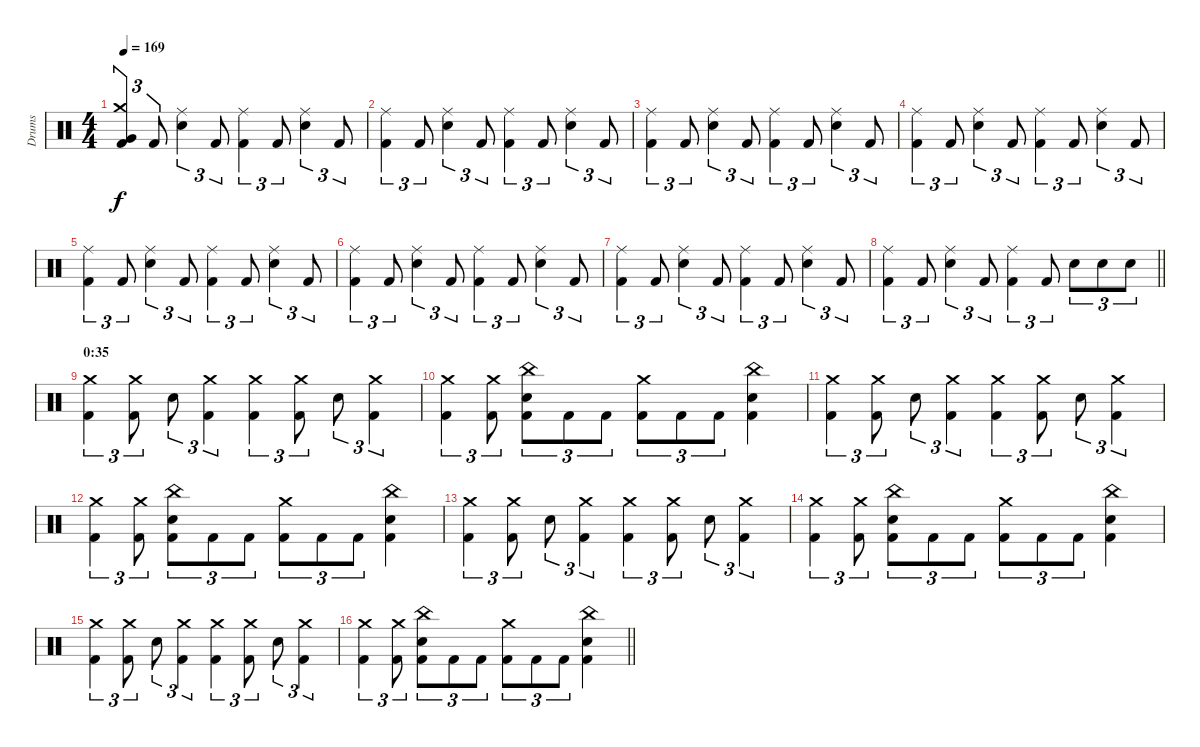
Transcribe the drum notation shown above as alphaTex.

\track ("Drums" "Drums") {instrument percussion}
\staff {score}
\articulation defaults
\ts (4 4)
\tempo 169
\clef neutral
\ks c
("Very Low Tom (hit)" "Crash medium (hit)" "Kick (hit) 2").4{tu (3 2) dy f} "Kick (hit) 2".8{tu (3 2)} ("Ride (middle)" "Snare (hit) 2").4{tu (3 2)} "Kick (hit) 2".8{tu (3 2)} ("Ride (middle)" "Kick (hit) 2").4{tu (3 2)} "Kick (hit) 2".8{tu (3 2)} ("Ride (middle)" "Snare (hit) 2").4{tu (3 2)} "Kick (hit) 2".8{tu (3 2)} |
("Ride (middle)" "Kick (hit) 2").4{tu (3 2)} "Kick (hit) 2".8{tu (3 2)} ("Ride (middle)" "Snare (hit) 2").4{tu (3 2)} "Kick (hit) 2".8{tu (3 2)} ("Ride (middle)" "Kick (hit) 2").4{tu (3 2)} "Kick (hit) 2".8{tu (3 2)} ("Ride (middle)" "Snare (hit) 2").4{tu (3 2)} "Kick (hit) 2".8{tu (3 2)} |
("Ride (middle)" "Kick (hit) 2").4{tu (3 2)} "Kick (hit) 2".8{tu (3 2)} ("Ride (middle)" "Snare (hit) 2").4{tu (3 2)} "Kick (hit) 2".8{tu (3 2)} ("Ride (middle)" "Kick (hit) 2").4{tu (3 2)} "Kick (hit) 2".8{tu (3 2)} ("Ride (middle)" "Snare (hit) 2").4{tu (3 2)} "Kick (hit) 2".8{tu (3 2)} |
("Ride (middle)" "Kick (hit) 2").4{tu (3 2)} "Kick (hit) 2".8{tu (3 2)} ("Ride (middle)" "Snare (hit) 2").4{tu (3 2)} "Kick (hit) 2".8{tu (3 2)} ("Ride (middle)" "Kick (hit) 2").4{tu (3 2)} "Kick (hit) 2".8{tu (3 2)} ("Ride (middle)" "Snare (hit) 2").4{tu (3 2)} "Kick (hit) 2".8{tu (3 2)} |
("Ride (middle)" "Kick (hit) 2").4{tu (3 2)} "Kick (hit) 2".8{tu (3 2)} ("Ride (middle)" "Snare (hit) 2").4{tu (3 2)} "Kick (hit) 2".8{tu (3 2)} ("Ride (middle)" "Kick (hit) 2").4{tu (3 2)} "Kick (hit) 2".8{tu (3 2)} ("Ride (middle)" "Snare (hit) 2").4{tu (3 2)} "Kick (hit) 2".8{tu (3 2)} |
("Ride (middle)" "Kick (hit) 2").4{tu (3 2)} "Kick (hit) 2".8{tu (3 2)} ("Ride (middle)" "Snare (hit) 2").4{tu (3 2)} "Kick (hit) 2".8{tu (3 2)} ("Ride (middle)" "Kick (hit) 2").4{tu (3 2)} "Kick (hit) 2".8{tu (3 2)} ("Ride (middle)" "Snare (hit) 2").4{tu (3 2)} "Kick (hit) 2".8{tu (3 2)} |
("Ride (middle)" "Kick (hit) 2").4{tu (3 2)} "Kick (hit) 2".8{tu (3 2)} ("Ride (middle)" "Snare (hit) 2").4{tu (3 2)} "Kick (hit) 2".8{tu (3 2)} ("Ride (middle)" "Kick (hit) 2").4{tu (3 2)} "Kick (hit) 2".8{tu (3 2)} ("Ride (middle)" "Snare (hit) 2").4{tu (3 2)} "Kick (hit) 2".8{tu (3 2)} |
\barLineRight lightlight
("Ride (middle)" "Kick (hit) 2").4{tu (3 2)} "Kick (hit) 2".8{tu (3 2)} ("Ride (middle)" "Snare (hit) 2").4{tu (3 2)} "Kick (hit) 2".8{tu (3 2)} ("Ride (middle)" "Kick (hit) 2").4{tu (3 2)} "Kick (hit) 2".8{tu (3 2)} "Snare (hit) 2".8{tu (3 2)} "Snare (hit) 2".8{tu (3 2)} "Snare (hit) 2".8{tu (3 2)} |
\section ("" "0:35")
("Crash medium (hit)" "Kick (hit) 2").4{tu (3 2)} ("Crash medium (hit)" "Kick (hit) 2").8{tu (3 2)} "Snare (hit) 2".8{tu (3 2)} ("Crash medium (hit)" "Kick (hit) 2").4{tu (3 2)} ("Crash medium (hit)" "Kick (hit) 2").4{tu (3 2)} ("Crash medium (hit)" "Kick (hit) 2").8{tu (3 2)} "Snare (hit) 2".8{tu (3 2)} ("Crash medium (hit)" "Kick (hit) 2").4{tu (3 2)} |
("Crash medium (hit)" "Kick (hit) 2").4{tu (3 2)} ("Crash medium (hit)" "Kick (hit) 2").8{tu (3 2)} ("China (hit)" "Snare (hit) 2" "Kick (hit) 2").8{tu (3 2)} "Kick (hit) 2".8{tu (3 2)} "Kick (hit) 2".8{tu (3 2)} ("Crash medium (hit)" "Kick (hit) 2").8{tu (3 2)} "Kick (hit) 2".8{tu (3 2)} "Kick (hit) 2".8{tu (3 2)} ("China (hit)" "Snare (hit) 2" "Kick (hit) 2").4 |
("Crash medium (hit)" "Kick (hit) 2").4{tu (3 2)} ("Crash medium (hit)" "Kick (hit) 2").8{tu (3 2)} "Snare (hit) 2".8{tu (3 2)} ("Crash medium (hit)" "Kick (hit) 2").4{tu (3 2)} ("Crash medium (hit)" "Kick (hit) 2").4{tu (3 2)} ("Crash medium (hit)" "Kick (hit) 2").8{tu (3 2)} "Snare (hit) 2".8{tu (3 2)} ("Crash medium (hit)" "Kick (hit) 2").4{tu (3 2)} |
("Crash medium (hit)" "Kick (hit) 2").4{tu (3 2)} ("Crash medium (hit)" "Kick (hit) 2").8{tu (3 2)} ("China (hit)" "Snare (hit) 2" "Kick (hit) 2").8{tu (3 2)} "Kick (hit) 2".8{tu (3 2)} "Kick (hit) 2".8{tu (3 2)} ("Crash medium (hit)" "Kick (hit) 2").8{tu (3 2)} "Kick (hit) 2".8{tu (3 2)} "Kick (hit) 2".8{tu (3 2)} ("China (hit)" "Snare (hit) 2" "Kick (hit) 2").4 |
("Crash medium (hit)" "Kick (hit) 2").4{tu (3 2)} ("Crash medium (hit)" "Kick (hit) 2").8{tu (3 2)} "Snare (hit) 2".8{tu (3 2)} ("Crash medium (hit)" "Kick (hit) 2").4{tu (3 2)} ("Crash medium (hit)" "Kick (hit) 2").4{tu (3 2)} ("Crash medium (hit)" "Kick (hit) 2").8{tu (3 2)} "Snare (hit) 2".8{tu (3 2)} ("Crash medium (hit)" "Kick (hit) 2").4{tu (3 2)} |
("Crash medium (hit)" "Kick (hit) 2").4{tu (3 2)} ("Crash medium (hit)" "Kick (hit) 2").8{tu (3 2)} ("China (hit)" "Snare (hit) 2" "Kick (hit) 2").8{tu (3 2)} "Kick (hit) 2".8{tu (3 2)} "Kick (hit) 2".8{tu (3 2)} ("Crash medium (hit)" "Kick (hit) 2").8{tu (3 2)} "Kick (hit) 2".8{tu (3 2)} "Kick (hit) 2".8{tu (3 2)} ("China (hit)" "Snare (hit) 2" "Kick (hit) 2").4 |
("Crash medium (hit)" "Kick (hit) 2").4{tu (3 2)} ("Crash medium (hit)" "Kick (hit) 2").8{tu (3 2)} "Snare (hit) 2".8{tu (3 2)} ("Crash medium (hit)" "Kick (hit) 2").4{tu (3 2)} ("Crash medium (hit)" "Kick (hit) 2").4{tu (3 2)} ("Crash medium (hit)" "Kick (hit) 2").8{tu (3 2)} "Snare (hit) 2".8{tu (3 2)} ("Crash medium (hit)" "Kick (hit) 2").4{tu (3 2)} |
\barLineRight lightlight
("Crash medium (hit)" "Kick (hit) 2").4{tu (3 2)} ("Crash medium (hit)" "Kick (hit) 2").8{tu (3 2)} ("China (hit)" "Snare (hit) 2" "Kick (hit) 2").8{tu (3 2)} "Kick (hit) 2".8{tu (3 2)} "Kick (hit) 2".8{tu (3 2)} ("Crash medium (hit)" "Kick (hit) 2").8{tu (3 2)} "Kick (hit) 2".8{tu (3 2)} "Kick (hit) 2".8{tu (3 2)} ("China (hit)" "Snare (hit) 2" "Kick (hit) 2").4
